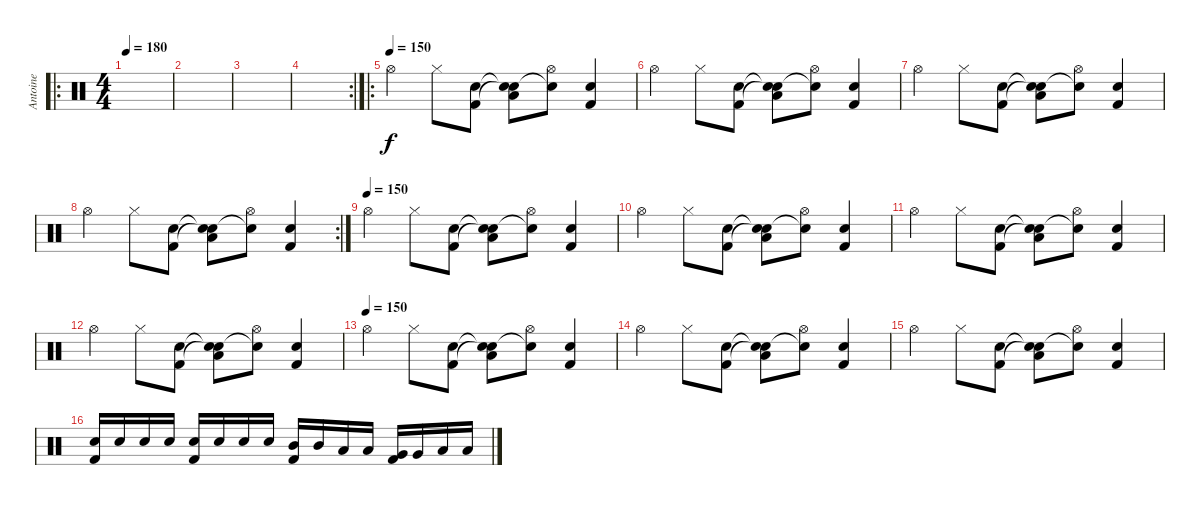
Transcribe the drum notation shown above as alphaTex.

\track ("Antoine" "Antoine") {instrument percussion}
\staff {score}
\articulation defaults
\ro
\ts (4 4)
\tempo 180
\tempo 150
\tempo 180
\clef neutral
\ks c
|
|
|
\rc 2
|
\ro
\tempo (150)
"Hi-Hat (open)".4 "Hi-Hat (closed)".8 ("Kick (hit) 2" "Electric Snare (hit)").8 ("Snare (hit)"{t} "Snare (hit)"{t} "Low Tom (hit)").8 ("Snare (hit)"{t} "Hi-Hat (open)").8 ("Kick (hit) 2" "Electric Snare (hit)").4 |
"Hi-Hat (open)".4 "Hi-Hat (closed)".8 ("Kick (hit) 2" "Electric Snare (hit)").8 ("Snare (hit)"{t} "Snare (hit)"{t} "Low Tom (hit)").8 ("Snare (hit)"{t} "Hi-Hat (open)").8 ("Kick (hit) 2" "Electric Snare (hit)").4 |
"Hi-Hat (open)".4 "Hi-Hat (closed)".8 ("Kick (hit) 2" "Electric Snare (hit)").8 ("Snare (hit)"{t} "Snare (hit)"{t} "Low Tom (hit)").8 ("Snare (hit)"{t} "Hi-Hat (open)").8 ("Kick (hit) 2" "Electric Snare (hit)").4 |
\rc 2 "Hi-Hat (open)".4 "Hi-Hat (closed)".8
("Kick (hit) 2" "Electric Snare (hit)").8 ("Snare (hit)"{t} "Snare (hit)"{t} "Low Tom (hit)").8 ("Snare (hit)"{t} "Hi-Hat (open)").8 ("Kick (hit) 2" "Electric Snare (hit)").4 |
\tempo (150)
"Hi-Hat (open)".4 "Hi-Hat (closed)".8 ("Kick (hit) 2" "Electric Snare (hit)").8 ("Snare (hit)"{t} "Snare (hit)"{t} "Low Tom (hit)").8 ("Snare (hit)"{t} "Hi-Hat (open)").8 ("Kick (hit) 2" "Electric Snare (hit)").4 |
"Hi-Hat (open)".4 "Hi-Hat (closed)".8 ("Kick (hit) 2" "Electric Snare (hit)").8 ("Snare (hit)"{t} "Snare (hit)"{t} "Low Tom (hit)").8 ("Snare (hit)"{t} "Hi-Hat (open)").8 ("Kick (hit) 2" "Electric Snare (hit)").4 |
"Hi-Hat (open)".4 "Hi-Hat (closed)".8 ("Kick (hit) 2" "Electric Snare (hit)").8 ("Snare (hit)"{t} "Snare (hit)"{t} "Low Tom (hit)").8 ("Snare (hit)"{t} "Hi-Hat (open)").8 ("Kick (hit) 2" "Electric Snare (hit)").4 |
"Hi-Hat (open)".4 "Hi-Hat (closed)".8 ("Kick (hit) 2" "Electric Snare (hit)").8 ("Snare (hit)"{t} "Snare (hit)"{t} "Low Tom (hit)").8 ("Snare (hit)"{t} "Hi-Hat (open)").8 ("Kick (hit) 2" "Electric Snare (hit)").4 |
\tempo (150)
"Hi-Hat (open)".4 "Hi-Hat (closed)".8 ("Kick (hit) 2" "Electric Snare (hit)").8 ("Snare (hit)"{t} "Snare (hit)"{t} "Low Tom (hit)").8 ("Snare (hit)"{t} "Hi-Hat (open)").8 ("Kick (hit) 2" "Electric Snare (hit)").4 |
"Hi-Hat (open)".4 "Hi-Hat (closed)".8 ("Kick (hit) 2" "Electric Snare (hit)").8 ("Snare (hit)"{t} "Snare (hit)"{t} "Low Tom (hit)").8 ("Snare (hit)"{t} "Hi-Hat (open)").8 ("Kick (hit) 2" "Electric Snare (hit)").4 |
"Hi-Hat (open)".4 "Hi-Hat (closed)".8 ("Kick (hit) 2" "Electric Snare (hit)").8 ("Snare (hit)"{t} "Snare (hit)"{t} "Low Tom (hit)").8 ("Snare (hit)"{t} "Hi-Hat (open)").8 ("Kick (hit) 2" "Electric Snare (hit)").4 |
("Electric Snare (hit)" "Kick (hit) 2").16 "Electric Snare (hit)".16 "Electric Snare (hit)".16 "Electric Snare (hit)".16 ("Electric Snare (hit)" "Kick (hit) 2").16 "Electric Snare (hit)".16 "Electric Snare (hit)".16 "Electric Snare (hit)".16 ("Mid Tom (hit)" "Kick (hit) 2").16 "Mid Tom (hit)".16 "Low Tom (hit)".16 "Low Tom (hit)".16 ("Very Low Tom (hit)" "Kick (hit) 2").16 "Very Low Tom (hit)".16 "Low Floor Tom (hit)".16 "Low Floor Tom (hit)".16
